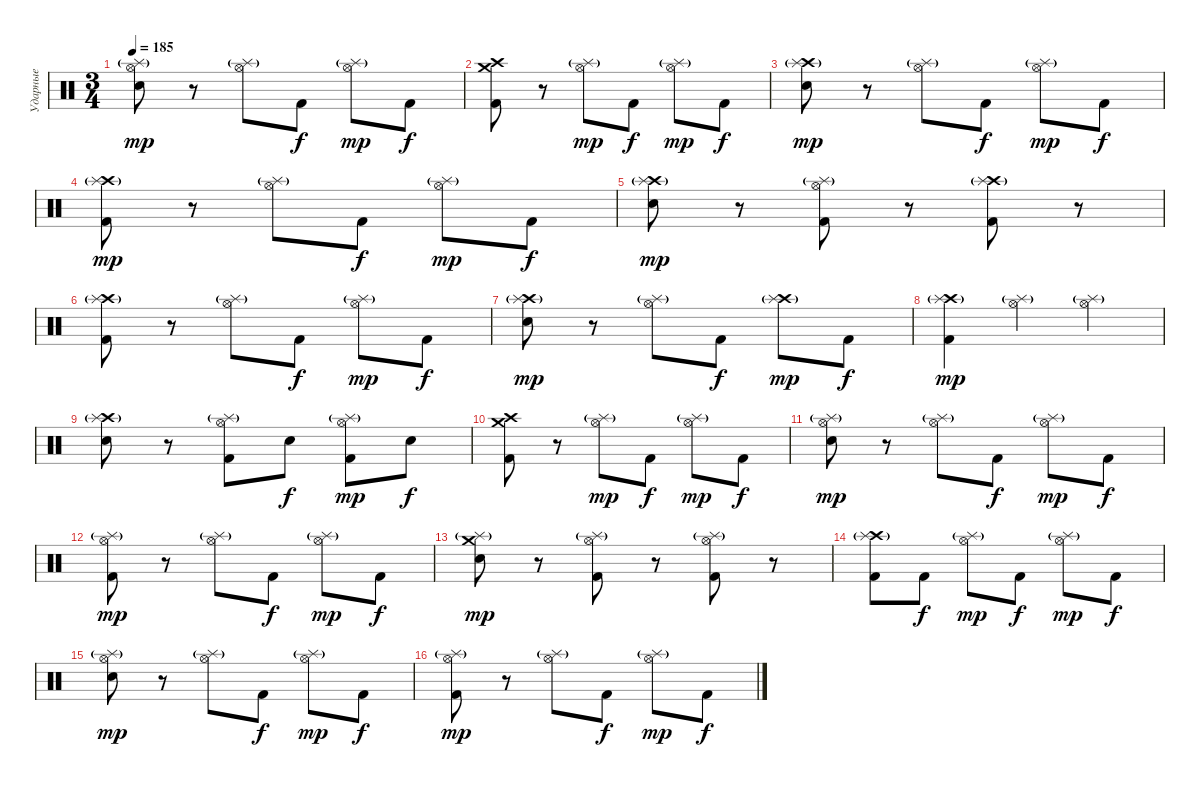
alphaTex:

\track ("Ударные" "Ударные") {instrument percussion}
\staff {score}
\articulation defaults
\ts (3 4)
\tempo 185
\clef neutral
\ks c
("Hi-Hat (open)" "Splash (hit)"{g} "Snare (hit) 2").8{dy mp} r.8 ("Hi-Hat (open)" "Splash (hit)"{g}).8 "Kick (hit) 2".8{dy f} ("Hi-Hat (open)" "Splash (hit)"{g}).8{dy mp} "Kick (hit) 2".8{dy f} |
("Crash high (hit)" "Crash medium (hit)" "Kick (hit) 2").8 r.8 ("Hi-Hat (open)" "Splash (hit)"{g}).8{dy mp} "Kick (hit) 2".8{dy f} ("Hi-Hat (open)" "Splash (hit)"{g}).8{dy mp} "Kick (hit) 2".8{dy f} |
("Crash high (hit)" "Splash (hit)"{g} "Snare (hit) 2").8{dy mp} r.8 ("Hi-Hat (open)" "Splash (hit)"{g}).8 "Kick (hit) 2".8{dy f} ("Hi-Hat (open)" "Splash (hit)"{g}).8{dy mp} "Kick (hit) 2".8{dy f} |
("Crash high (hit)" "Splash (hit)"{g} "Kick (hit) 2").8{dy mp} r.8 ("Hi-Hat (open)" "Splash (hit)"{g}).8 "Kick (hit) 2".8{dy f} ("Hi-Hat (open)" "Splash (hit)"{g}).8{dy mp} "Kick (hit) 2".8{dy f} |
("Crash high (hit)" "Splash (hit)"{g} "Snare (hit) 2").8{dy mp} r.8 ("Hi-Hat (open)" "Splash (hit)"{g} "Kick (hit) 2").8 r.8 ("Crash high (hit)" "Splash (hit)"{g} "Kick (hit) 2").8 r.8 |
("Crash high (hit)" "Splash (hit)"{g} "Kick (hit) 2").8 r.8 ("Hi-Hat (open)" "Splash (hit)"{g}).8 "Kick (hit) 2".8{dy f} ("Hi-Hat (open)" "Splash (hit)"{g}).8{dy mp} "Kick (hit) 2".8{dy f} |
("Crash high (hit)" "Splash (hit)"{g} "Snare (hit) 2").8{dy mp} r.8 ("Hi-Hat (open)" "Splash (hit)"{g}).8 "Kick (hit) 2".8{dy f} ("Crash high (hit)" "Splash (hit)"{g}).8{dy mp} "Kick (hit) 2".8{dy f} |
("Crash high (hit)" "Splash (hit)"{g} "Kick (hit) 2").4{dy mp} ("Hi-Hat (open)" "Splash (hit)"{g}).4 ("Hi-Hat (open)" "Splash (hit)"{g}).4 |
("Crash high (hit)" "Splash (hit)"{g} "Snare (hit) 2").8 r.8 ("Hi-Hat (open)" "Splash (hit)"{g} "Kick (hit) 2").8 "Snare (hit) 2".8{dy f} ("Hi-Hat (open)" "Splash (hit)"{g} "Kick (hit) 2").8{dy mp} "Snare (hit) 2".8{dy f} |
("Crash high (hit)" "Crash medium (hit)" "Kick (hit) 2").8 r.8 ("Hi-Hat (open)" "Splash (hit)"{g}).8{dy mp} "Kick (hit) 2".8{dy f} ("Hi-Hat (open)" "Splash (hit)"{g}).8{dy mp} "Kick (hit) 2".8{dy f} |
("Hi-Hat (open)" "Splash (hit)"{g} "Snare (hit) 2").8{dy mp} r.8 ("Hi-Hat (open)" "Splash (hit)"{g}).8 "Kick (hit) 2".8{dy f} ("Hi-Hat (open)" "Splash (hit)"{g}).8{dy mp} "Kick (hit) 2".8{dy f} |
("Hi-Hat (open)" "Splash (hit)"{g} "Kick (hit) 2").8{dy mp} r.8 ("Hi-Hat (open)" "Splash (hit)"{g}).8 "Kick (hit) 2".8{dy f} ("Hi-Hat (open)" "Splash (hit)"{g}).8{dy mp} "Kick (hit) 2".8{dy f} |
("Crash medium (hit)" "Splash (hit)"{g} "Snare (hit) 2").8{dy mp} r.8 ("Hi-Hat (open)" "Splash (hit)"{g} "Kick (hit) 2").8 r.8 ("Hi-Hat (open)" "Splash (hit)"{g} "Kick (hit) 2").8 r.8 |
("Crash high (hit)" "Splash (hit)"{g} "Kick (hit) 2").8 "Kick (hit) 2".8{dy f} ("Hi-Hat (open)" "Splash (hit)"{g}).8{dy mp} "Kick (hit) 2".8{dy f} ("Hi-Hat (open)" "Splash (hit)"{g}).8{dy mp} "Kick (hit) 2".8{dy f} |
("Hi-Hat (open)" "Splash (hit)"{g} "Snare (hit) 2").8{dy mp} r.8 ("Hi-Hat (open)" "Splash (hit)"{g}).8 "Kick (hit) 2".8{dy f} ("Hi-Hat (open)" "Splash (hit)"{g}).8{dy mp} "Kick (hit) 2".8{dy f} |
("Hi-Hat (open)" "Splash (hit)"{g} "Kick (hit) 2").8{dy mp} r.8 ("Hi-Hat (open)" "Splash (hit)"{g}).8 "Kick (hit) 2".8{dy f} ("Hi-Hat (open)" "Splash (hit)"{g}).8{dy mp} "Kick (hit) 2".8{dy f}
